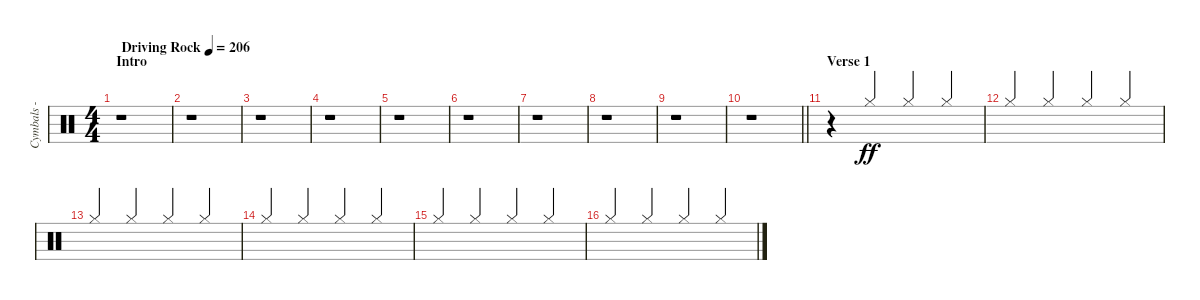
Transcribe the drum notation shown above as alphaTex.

\track ("Cymbals - hi-hat" "Cymbals - ") {instrument percussion}
\staff {score}
\articulation defaults
\ts (4 4)
\section ("" "Intro")
\tempo (206 "Driving Rock")
\clef neutral
\ks c
r.1{dy ff} |
r.1{volume 7 balance 10} |
r.1 |
r.1 |
r.1 |
r.1 |
r.1 |
r.1 |
r.1 |
\barLineRight lightlight
r.1 |
\section ("" "Verse 1")
r.4 "Hi-Hat (closed)".4{beam Up} "Hi-Hat (closed)".4{beam Up} "Hi-Hat (closed)".4{beam Up} |
"Hi-Hat (closed)".4{beam Up} "Hi-Hat (closed)".4{beam Up} "Hi-Hat (closed)".4{beam Up} "Hi-Hat (closed)".4{beam Up} |
"Hi-Hat (closed)".4{beam Up} "Hi-Hat (closed)".4{beam Up} "Hi-Hat (closed)".4{beam Up} "Hi-Hat (closed)".4{beam Up} |
"Hi-Hat (closed)".4{beam Up} "Hi-Hat (closed)".4{beam Up} "Hi-Hat (closed)".4{beam Up} "Hi-Hat (closed)".4{beam Up} |
"Hi-Hat (closed)".4{beam Up} "Hi-Hat (closed)".4{beam Up} "Hi-Hat (closed)".4{beam Up} "Hi-Hat (closed)".4{beam Up} |
"Hi-Hat (closed)".4{beam Up} "Hi-Hat (closed)".4{beam Up} "Hi-Hat (closed)".4{beam Up} "Hi-Hat (closed)".4{beam Up}
